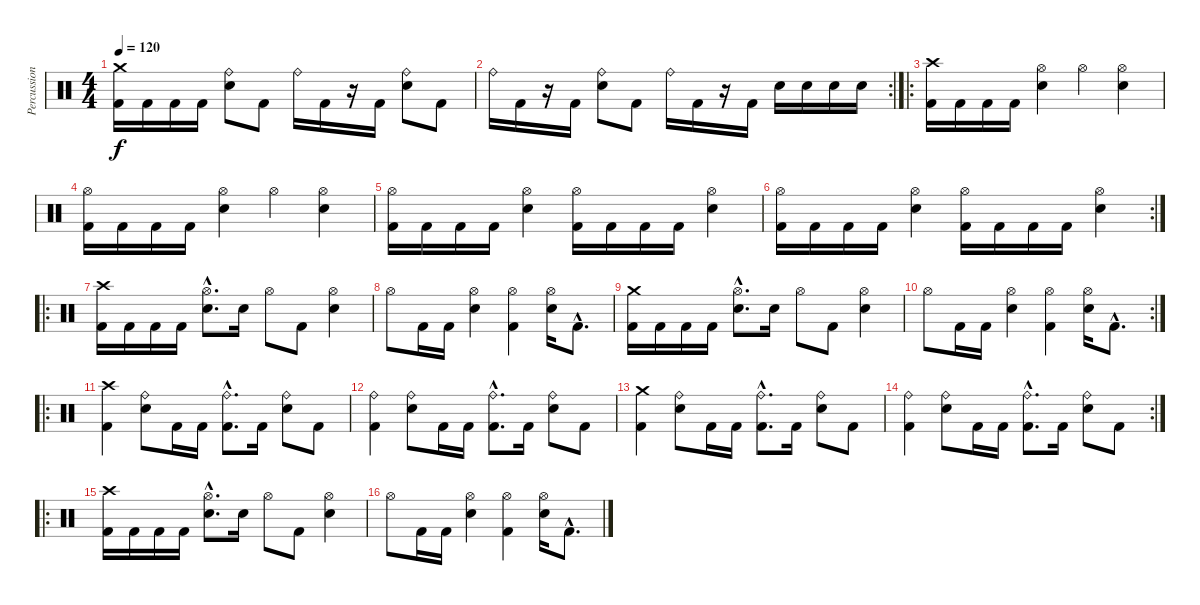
\track ("Percussions" "Percussion") {instrument percussion}
\staff {score}
\articulation defaults
\ts (4 4)
\tempo 120
\clef neutral
\ks c
("Crash medium (hit)" "Kick (hit) 2").16{dy f} "Kick (hit) 2".16 "Kick (hit) 2".16 "Kick (hit) 2".16 ("Ride (bell)" "Electric Snare (hit)").8 "Kick (hit) 2".8 "Ride (bell)".16 "Kick (hit) 2".16 r.16 "Kick (hit) 2".16 ("Ride (bell)" "Electric Snare (hit)").8 "Kick (hit) 2".8 |
\rc 2 "Ride (bell)".16 "Kick (hit) 2".16
r.16 "Kick (hit) 2".16 ("Ride (bell)" "Electric Snare (hit)").8 "Kick (hit) 2".8 "Ride (bell)".16 "Kick (hit) 2".16 r.16 "Kick (hit) 2".16 "Electric Snare (hit)".16 "Electric Snare (hit)".16 "Electric Snare (hit)".16 "Electric Snare (hit)".16 |
\ro
("Crash high (hit)" "Kick (hit) 2").16 "Kick (hit) 2".16 "Kick (hit) 2".16 "Kick (hit) 2".16 ("Hi-Hat (open)" "Electric Snare (hit)").4 "Hi-Hat (open)".4 ("Hi-Hat (open)" "Electric Snare (hit)").4 |
("Hi-Hat (open)" "Kick (hit) 2").16 "Kick (hit) 2".16 "Kick (hit) 2".16 "Kick (hit) 2".16 ("Hi-Hat (open)" "Electric Snare (hit)").4 "Hi-Hat (open)".4 ("Hi-Hat (open)" "Electric Snare (hit)").4 |
("Hi-Hat (open)" "Kick (hit) 2").16 "Kick (hit) 2".16 "Kick (hit) 2".16 "Kick (hit) 2".16 ("Hi-Hat (open)" "Electric Snare (hit)").4 ("Hi-Hat (open)" "Kick (hit) 2").16 "Kick (hit) 2".16 "Kick (hit) 2".16 "Kick (hit) 2".16 ("Hi-Hat (open)" "Electric Snare (hit)").4 |
\rc 2
("Hi-Hat (open)" "Kick (hit) 2").16 "Kick (hit) 2".16 "Kick (hit) 2".16 "Kick (hit) 2".16 ("Hi-Hat (open)" "Electric Snare (hit)").4 ("Hi-Hat (open)" "Kick (hit) 2").16 "Kick (hit) 2".16 "Kick (hit) 2".16 "Kick (hit) 2".16 ("Hi-Hat (open)" "Electric Snare (hit)").4 |
\ro
("Crash high (hit)" "Kick (hit) 2").16 "Kick (hit) 2".16 "Kick (hit) 2".16 "Kick (hit) 2".16 ("Hi-Hat (open)"{hac} "Electric Snare (hit)"{hac}).8{d} "Electric Snare (hit)".16 "Hi-Hat (open)".8 "Kick (hit) 2".8 ("Hi-Hat (open)" "Electric Snare (hit)").4 |
"Hi-Hat (open)".8 "Kick (hit) 2".16 "Kick (hit) 2".16 ("Hi-Hat (open)" "Electric Snare (hit)").4 ("Hi-Hat (open)" "Kick (hit) 2").4 ("Hi-Hat (open)" "Electric Snare (hit)").16 "Kick (hit) 2"{hac}.8{d} |
("Crash medium (hit)" "Kick (hit) 2").16 "Kick (hit) 2".16 "Kick (hit) 2".16 "Kick (hit) 2".16 ("Hi-Hat (open)"{hac} "Electric Snare (hit)"{hac}).8{d} "Electric Snare (hit)".16 "Hi-Hat (open)".8 "Kick (hit) 2".8 ("Hi-Hat (open)" "Electric Snare (hit)").4 |
\rc 2 "Hi-Hat (open)".8 "Kick (hit) 2".16 "Kick (hit) 2".16
("Hi-Hat (open)" "Electric Snare (hit)").4 ("Hi-Hat (open)" "Kick (hit) 2").4 ("Hi-Hat (open)" "Electric Snare (hit)").16 "Kick (hit) 2"{hac}.8{d} |
\ro
("Crash high (hit)" "Kick (hit) 2").4 ("Ride (bell)" "Electric Snare (hit)").8 "Kick (hit) 2".16 "Kick (hit) 2".16 ("Ride (bell)"{hac} "Kick (hit) 2"{hac}).8{d} "Kick (hit) 2".16 ("Ride (bell)" "Electric Snare (hit)").8 "Kick (hit) 2".8 |
("Ride (bell)" "Kick (hit) 2").4 ("Ride (bell)" "Electric Snare (hit)").8 "Kick (hit) 2".16 "Kick (hit) 2".16 ("Ride (bell)"{hac} "Kick (hit) 2"{hac}).8{d} "Kick (hit) 2".16 ("Ride (bell)" "Electric Snare (hit)").8 "Kick (hit) 2".8 |
("Crash medium (hit)" "Kick (hit) 2").4 ("Ride (bell)" "Electric Snare (hit)").8 "Kick (hit) 2".16 "Kick (hit) 2".16 ("Ride (bell)"{hac} "Kick (hit) 2"{hac}).8{d} "Kick (hit) 2".16 ("Ride (bell)" "Electric Snare (hit)").8 "Kick (hit) 2".8 |
\rc 2
("Ride (bell)" "Kick (hit) 2").4 ("Ride (bell)" "Electric Snare (hit)").8 "Kick (hit) 2".16 "Kick (hit) 2".16 ("Ride (bell)"{hac} "Kick (hit) 2"{hac}).8{d} "Kick (hit) 2".16 ("Ride (bell)" "Electric Snare (hit)").8 "Kick (hit) 2".8 |
\ro
("Crash high (hit)" "Kick (hit) 2").16 "Kick (hit) 2".16 "Kick (hit) 2".16 "Kick (hit) 2".16 ("Hi-Hat (open)"{hac} "Electric Snare (hit)"{hac}).8{d} "Electric Snare (hit)".16 "Hi-Hat (open)".8 "Kick (hit) 2".8 ("Hi-Hat (open)" "Electric Snare (hit)").4 |
"Hi-Hat (open)".8 "Kick (hit) 2".16 "Kick (hit) 2".16 ("Hi-Hat (open)" "Electric Snare (hit)").4 ("Hi-Hat (open)" "Kick (hit) 2").4 ("Hi-Hat (open)" "Electric Snare (hit)").16 "Kick (hit) 2"{hac}.8{d}
